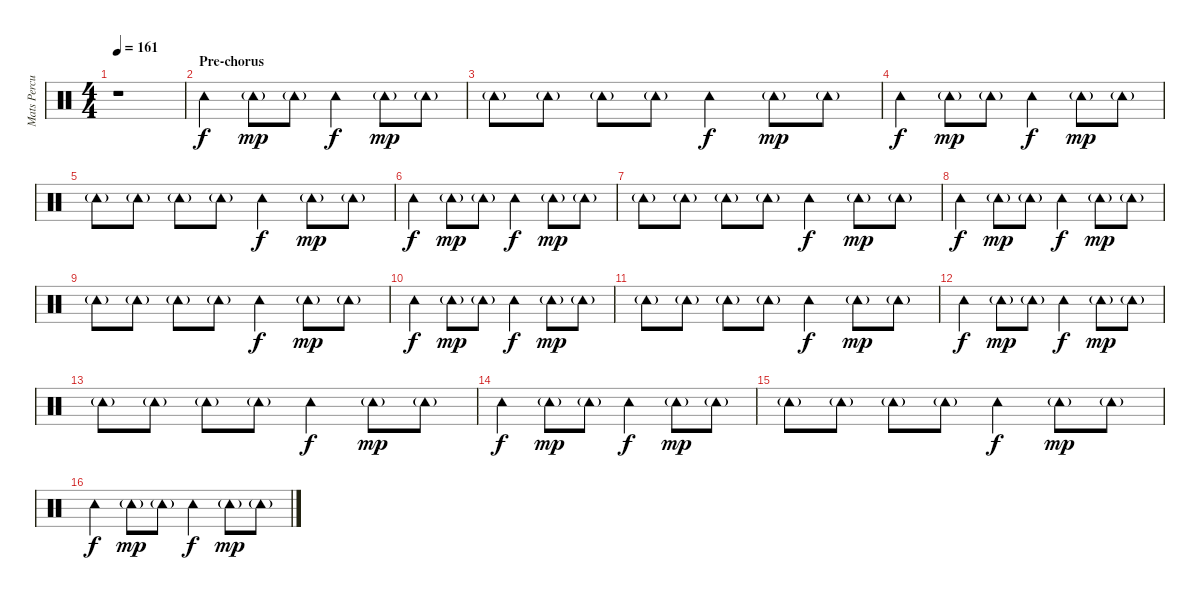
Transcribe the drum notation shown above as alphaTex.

\track ("Mats Percussion" "Mats Percu") {instrument percussion}
\staff {score}
\articulation defaults
\ts (4 4)
\tempo 161
\clef neutral
\ks c
r.1{dy f} |
\section ("" "Pre-chorus")
"Tambourine (hit)".4 "Tambourine (hit)"{g}.8{dy mp} "Tambourine (hit)"{g}.8 "Tambourine (hit)".4{dy f} "Tambourine (hit)"{g}.8{dy mp} "Tambourine (hit)"{g}.8 |
"Tambourine (hit)"{g}.8 "Tambourine (hit)"{g}.8 "Tambourine (hit)"{g}.8 "Tambourine (hit)"{g}.8 "Tambourine (hit)".4{dy f} "Tambourine (hit)"{g}.8{dy mp} "Tambourine (hit)"{g}.8 |
"Tambourine (hit)".4{dy f} "Tambourine (hit)"{g}.8{dy mp} "Tambourine (hit)"{g}.8 "Tambourine (hit)".4{dy f} "Tambourine (hit)"{g}.8{dy mp} "Tambourine (hit)"{g}.8 |
"Tambourine (hit)"{g}.8 "Tambourine (hit)"{g}.8 "Tambourine (hit)"{g}.8 "Tambourine (hit)"{g}.8 "Tambourine (hit)".4{dy f} "Tambourine (hit)"{g}.8{dy mp} "Tambourine (hit)"{g}.8 |
"Tambourine (hit)".4{dy f} "Tambourine (hit)"{g}.8{dy mp} "Tambourine (hit)"{g}.8 "Tambourine (hit)".4{dy f} "Tambourine (hit)"{g}.8{dy mp} "Tambourine (hit)"{g}.8 |
"Tambourine (hit)"{g}.8 "Tambourine (hit)"{g}.8 "Tambourine (hit)"{g}.8 "Tambourine (hit)"{g}.8 "Tambourine (hit)".4{dy f} "Tambourine (hit)"{g}.8{dy mp} "Tambourine (hit)"{g}.8 |
"Tambourine (hit)".4{dy f} "Tambourine (hit)"{g}.8{dy mp} "Tambourine (hit)"{g}.8 "Tambourine (hit)".4{dy f} "Tambourine (hit)"{g}.8{dy mp} "Tambourine (hit)"{g}.8 |
"Tambourine (hit)"{g}.8 "Tambourine (hit)"{g}.8 "Tambourine (hit)"{g}.8 "Tambourine (hit)"{g}.8 "Tambourine (hit)".4{dy f} "Tambourine (hit)"{g}.8{dy mp} "Tambourine (hit)"{g}.8 |
"Tambourine (hit)".4{dy f} "Tambourine (hit)"{g}.8{dy mp} "Tambourine (hit)"{g}.8 "Tambourine (hit)".4{dy f} "Tambourine (hit)"{g}.8{dy mp} "Tambourine (hit)"{g}.8 |
"Tambourine (hit)"{g}.8 "Tambourine (hit)"{g}.8 "Tambourine (hit)"{g}.8 "Tambourine (hit)"{g}.8 "Tambourine (hit)".4{dy f} "Tambourine (hit)"{g}.8{dy mp} "Tambourine (hit)"{g}.8 |
"Tambourine (hit)".4{dy f} "Tambourine (hit)"{g}.8{dy mp} "Tambourine (hit)"{g}.8 "Tambourine (hit)".4{dy f} "Tambourine (hit)"{g}.8{dy mp} "Tambourine (hit)"{g}.8 |
"Tambourine (hit)"{g}.8 "Tambourine (hit)"{g}.8 "Tambourine (hit)"{g}.8 "Tambourine (hit)"{g}.8 "Tambourine (hit)".4{dy f} "Tambourine (hit)"{g}.8{dy mp} "Tambourine (hit)"{g}.8 |
"Tambourine (hit)".4{dy f} "Tambourine (hit)"{g}.8{dy mp} "Tambourine (hit)"{g}.8 "Tambourine (hit)".4{dy f} "Tambourine (hit)"{g}.8{dy mp} "Tambourine (hit)"{g}.8 |
"Tambourine (hit)"{g}.8 "Tambourine (hit)"{g}.8 "Tambourine (hit)"{g}.8 "Tambourine (hit)"{g}.8 "Tambourine (hit)".4{dy f} "Tambourine (hit)"{g}.8{dy mp} "Tambourine (hit)"{g}.8 |
"Tambourine (hit)".4{dy f} "Tambourine (hit)"{g}.8{dy mp} "Tambourine (hit)"{g}.8 "Tambourine (hit)".4{dy f} "Tambourine (hit)"{g}.8{dy mp} "Tambourine (hit)"{g}.8
